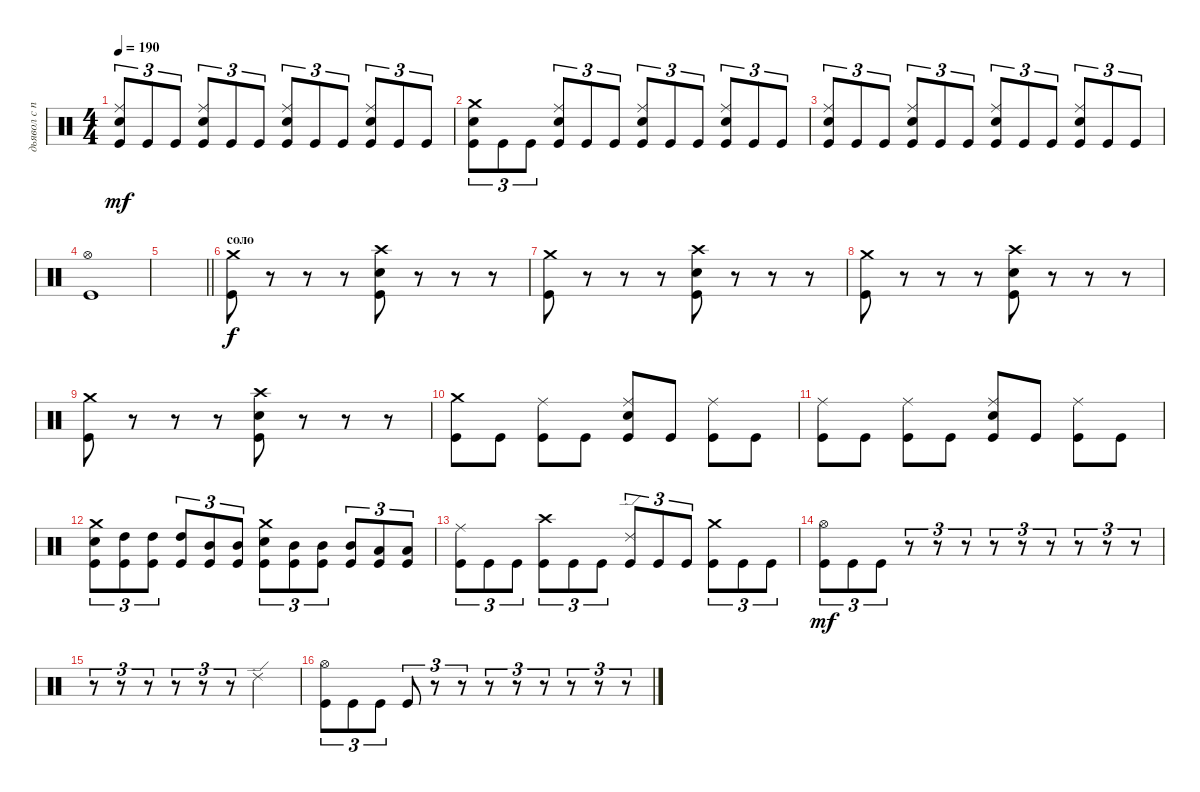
\track ("дьявол с палками" "дьявол с п") {instrument percussion}
\staff {score}
\articulation defaults
\ts (4 4)
\tempo 190
\clef neutral
\ks c
("Kick (hit)" "Ride (middle)" "Snare (hit) 2").8{tu (3 2) dy mf} "Kick (hit)".8{tu (3 2)} "Kick (hit)".8{tu (3 2)} ("Kick (hit)" "Snare (hit) 2" "Ride (middle)").8{tu (3 2)} "Kick (hit)".8{tu (3 2)} "Kick (hit)".8{tu (3 2)} ("Kick (hit)" "Ride (middle)" "Snare (hit) 2").8{tu (3 2)} "Kick (hit)".8{tu (3 2)} "Kick (hit)".8{tu (3 2)} ("Kick (hit)" "Snare (hit) 2" "Ride (middle)").8{tu (3 2)} "Kick (hit)".8{tu (3 2)} "Kick (hit)".8{tu (3 2)} |
("Kick (hit)" "Crash medium (hit)" "Snare (hit) 2").8{tu (3 2)} "Kick (hit)".8{tu (3 2)} "Kick (hit)".8{tu (3 2)} ("Kick (hit)" "Snare (hit) 2" "Ride (middle)").8{tu (3 2)} "Kick (hit)".8{tu (3 2)} "Kick (hit)".8{tu (3 2)} ("Kick (hit)" "Ride (middle)" "Snare (hit) 2").8{tu (3 2)} "Kick (hit)".8{tu (3 2)} "Kick (hit)".8{tu (3 2)} ("Kick (hit)" "Snare (hit) 2" "Ride (middle)").8{tu (3 2)} "Kick (hit)".8{tu (3 2)} "Kick (hit)".8{tu (3 2)} |
("Kick (hit)" "Ride (middle)" "Snare (hit) 2").8{tu (3 2)} "Kick (hit)".8{tu (3 2)} "Kick (hit)".8{tu (3 2)} ("Kick (hit)" "Snare (hit) 2" "Ride (middle)").8{tu (3 2)} "Kick (hit)".8{tu (3 2)} "Kick (hit)".8{tu (3 2)} ("Kick (hit)" "Ride (middle)" "Snare (hit) 2").8{tu (3 2)} "Kick (hit)".8{tu (3 2)} "Kick (hit)".8{tu (3 2)} ("Kick (hit)" "Snare (hit) 2" "Ride (middle)").8{tu (3 2)} "Kick (hit)".8{tu (3 2)} "Kick (hit)".8{tu (3 2)} |
("Kick (hit)" "Hi-Hat (open)").1 |
\barLineRight lightlight
|
\section ("" "соло")
("Kick (hit)" "Crash medium (hit)").8{dy f} r.8 r.8 r.8 ("Kick (hit)" "Snare (hit) 2" "Crash high (hit)").8 r.8 r.8 r.8 |
("Kick (hit)" "Crash medium (hit)").8 r.8 r.8 r.8 ("Kick (hit)" "Snare (hit) 2" "Crash high (hit)").8 r.8 r.8 r.8 |
("Kick (hit)" "Crash medium (hit)").8 r.8 r.8 r.8 ("Kick (hit)" "Snare (hit) 2" "Crash high (hit)").8 r.8 r.8 r.8 |
("Kick (hit)" "Crash medium (hit)").8 r.8 r.8 r.8 ("Kick (hit)" "Snare (hit) 2" "Crash high (hit)").8 r.8 r.8 r.8 |
("Kick (hit)" "Crash medium (hit)").8 "Kick (hit)".8 ("Kick (hit)" "Ride (middle)").8 "Kick (hit)".8 ("Kick (hit)" "Ride (middle)" "Snare (hit) 2").8 "Kick (hit)".8 ("Kick (hit)" "Ride (middle)").8 "Kick (hit)".8 |
("Kick (hit)" "Ride (middle)").8 "Kick (hit)".8 ("Kick (hit)" "Ride (middle)").8 "Kick (hit)".8 ("Kick (hit)" "Snare (hit) 2" "Ride (middle)").8 "Kick (hit)".8 ("Kick (hit)" "Ride (middle)").8 "Kick (hit)".8 |
("Kick (hit)" "Snare (hit) 2" "Crash medium (hit)").8{tu (3 2)} ("Kick (hit)" "High Tom (hit)").8{tu (3 2)} ("Kick (hit)" "High Tom (hit)").8{tu (3 2)} ("Kick (hit)" "High Tom (hit)").8{tu (3 2)} ("Kick (hit)" "Mid Tom (hit)").8{tu (3 2)} ("Kick (hit)" "Mid Tom (hit)").8{tu (3 2)} ("Kick (hit)" "Snare (hit) 2" "Crash medium (hit)").8{tu (3 2)} ("Kick (hit)" "Mid Tom (hit)").8{tu (3 2)} ("Kick (hit)" "Mid Tom (hit)").8{tu (3 2)} ("Kick (hit)" "Mid Tom (hit)").8{tu (3 2)} ("Kick (hit)" "Low Tom (hit)").8{tu (3 2)} ("Kick (hit)" "Low Tom (hit)").8{tu (3 2)} |
("Kick (hit)" "Ride (middle)").8{tu (3 2)} "Kick (hit)".8{tu (3 2)} "Kick (hit)".8{tu (3 2)} ("Kick (hit)" "Crash high (hit)").8{tu (3 2)} "Kick (hit)".8{tu (3 2)} "Kick (hit)".8{tu (3 2)} ("Kick (hit)" "Ride (edge) 2").8{tu (3 2)} "Kick (hit)".8{tu (3 2)} "Kick (hit)".8{tu (3 2)} ("Kick (hit)" "Crash medium (hit)").8{tu (3 2)} "Kick (hit)".8{tu (3 2)} "Kick (hit)".8{tu (3 2)} |
("Kick (hit)" "Hi-Hat (open)").8{tu (3 2) dy mf} "Kick (hit)".8{tu (3 2)} "Kick (hit)".8{tu (3 2)} r.8{tu (3 2)} r.8{tu (3 2)} r.8{tu (3 2)} r.8{tu (3 2)} r.8{tu (3 2)} r.8{tu (3 2)} r.8{tu (3 2)} r.8{tu (3 2)} r.8{tu (3 2)} |
r.8{tu (3 2)} r.8{tu (3 2)} r.8{tu (3 2)} r.8{tu (3 2)} r.8{tu (3 2)} r.8{tu (3 2)} "Ride (edge) 2".2 |
("Kick (hit)" "Hi-Hat (open)").8{tu (3 2)} "Kick (hit)".8{tu (3 2)} "Kick (hit)".8{tu (3 2)} "Kick (hit)".8{tu (3 2)} r.8{tu (3 2)} r.8{tu (3 2)} r.8{tu (3 2)} r.8{tu (3 2)} r.8{tu (3 2)} r.8{tu (3 2)} r.8{tu (3 2)} r.8{tu (3 2)}
